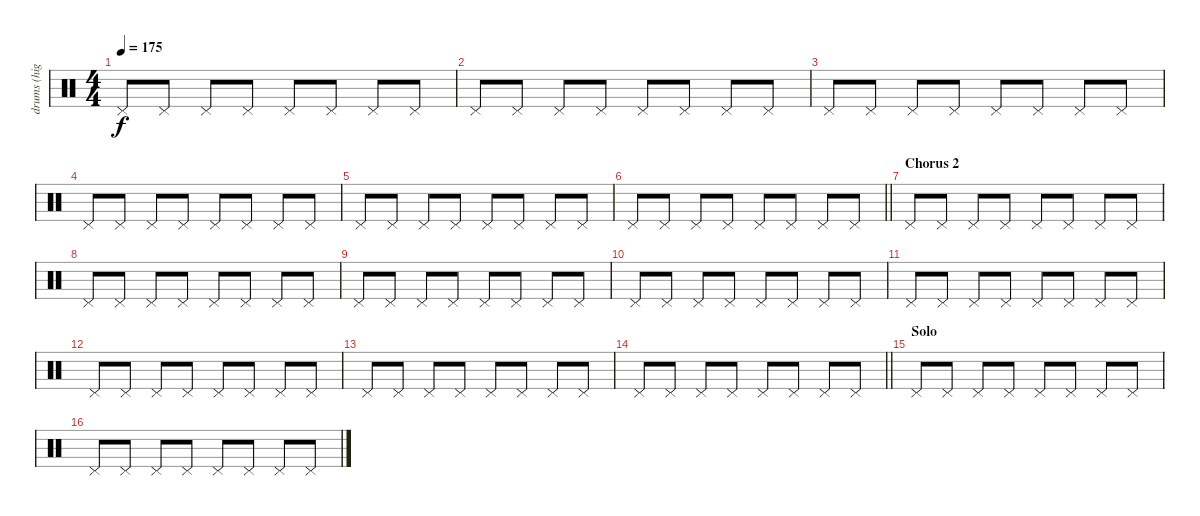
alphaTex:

\track ("drums (highhat)" "drums (hig") {instrument percussion}
\staff {score}
\articulation defaults
\ts (4 4)
\tempo 175
\clef neutral
\ks c "Pedal Hi-Hat (hit)".8{dy f} "Pedal Hi-Hat (hit)".8 "Pedal Hi-Hat (hit)".8 "Pedal Hi-Hat (hit)".8 "Pedal Hi-Hat (hit)".8 "Pedal Hi-Hat (hit)".8 "Pedal Hi-Hat (hit)".8 "Pedal Hi-Hat (hit)".8
|
"Pedal Hi-Hat (hit)".8 "Pedal Hi-Hat (hit)".8 "Pedal Hi-Hat (hit)".8 "Pedal Hi-Hat (hit)".8 "Pedal Hi-Hat (hit)".8 "Pedal Hi-Hat (hit)".8 "Pedal Hi-Hat (hit)".8 "Pedal Hi-Hat (hit)".8 |
"Pedal Hi-Hat (hit)".8 "Pedal Hi-Hat (hit)".8 "Pedal Hi-Hat (hit)".8 "Pedal Hi-Hat (hit)".8 "Pedal Hi-Hat (hit)".8 "Pedal Hi-Hat (hit)".8 "Pedal Hi-Hat (hit)".8 "Pedal Hi-Hat (hit)".8 |
"Pedal Hi-Hat (hit)".8 "Pedal Hi-Hat (hit)".8 "Pedal Hi-Hat (hit)".8 "Pedal Hi-Hat (hit)".8 "Pedal Hi-Hat (hit)".8 "Pedal Hi-Hat (hit)".8 "Pedal Hi-Hat (hit)".8 "Pedal Hi-Hat (hit)".8 |
"Pedal Hi-Hat (hit)".8 "Pedal Hi-Hat (hit)".8 "Pedal Hi-Hat (hit)".8 "Pedal Hi-Hat (hit)".8 "Pedal Hi-Hat (hit)".8 "Pedal Hi-Hat (hit)".8 "Pedal Hi-Hat (hit)".8 "Pedal Hi-Hat (hit)".8 |
\barLineRight lightlight "Pedal Hi-Hat (hit)".8 "Pedal Hi-Hat (hit)".8 "Pedal Hi-Hat (hit)".8 "Pedal Hi-Hat (hit)".8 "Pedal Hi-Hat (hit)".8 "Pedal Hi-Hat (hit)".8 "Pedal Hi-Hat (hit)".8 "Pedal Hi-Hat (hit)".8
|
\section ("" "Chorus 2")
"Pedal Hi-Hat (hit)".8 "Pedal Hi-Hat (hit)".8 "Pedal Hi-Hat (hit)".8 "Pedal Hi-Hat (hit)".8 "Pedal Hi-Hat (hit)".8 "Pedal Hi-Hat (hit)".8 "Pedal Hi-Hat (hit)".8 "Pedal Hi-Hat (hit)".8 |
"Pedal Hi-Hat (hit)".8 "Pedal Hi-Hat (hit)".8 "Pedal Hi-Hat (hit)".8 "Pedal Hi-Hat (hit)".8 "Pedal Hi-Hat (hit)".8 "Pedal Hi-Hat (hit)".8 "Pedal Hi-Hat (hit)".8 "Pedal Hi-Hat (hit)".8 |
"Pedal Hi-Hat (hit)".8 "Pedal Hi-Hat (hit)".8 "Pedal Hi-Hat (hit)".8 "Pedal Hi-Hat (hit)".8 "Pedal Hi-Hat (hit)".8 "Pedal Hi-Hat (hit)".8 "Pedal Hi-Hat (hit)".8 "Pedal Hi-Hat (hit)".8 |
"Pedal Hi-Hat (hit)".8 "Pedal Hi-Hat (hit)".8 "Pedal Hi-Hat (hit)".8 "Pedal Hi-Hat (hit)".8 "Pedal Hi-Hat (hit)".8 "Pedal Hi-Hat (hit)".8 "Pedal Hi-Hat (hit)".8 "Pedal Hi-Hat (hit)".8 |
"Pedal Hi-Hat (hit)".8 "Pedal Hi-Hat (hit)".8 "Pedal Hi-Hat (hit)".8 "Pedal Hi-Hat (hit)".8 "Pedal Hi-Hat (hit)".8 "Pedal Hi-Hat (hit)".8 "Pedal Hi-Hat (hit)".8 "Pedal Hi-Hat (hit)".8 |
"Pedal Hi-Hat (hit)".8 "Pedal Hi-Hat (hit)".8 "Pedal Hi-Hat (hit)".8 "Pedal Hi-Hat (hit)".8 "Pedal Hi-Hat (hit)".8 "Pedal Hi-Hat (hit)".8 "Pedal Hi-Hat (hit)".8 "Pedal Hi-Hat (hit)".8 |
"Pedal Hi-Hat (hit)".8 "Pedal Hi-Hat (hit)".8 "Pedal Hi-Hat (hit)".8 "Pedal Hi-Hat (hit)".8 "Pedal Hi-Hat (hit)".8 "Pedal Hi-Hat (hit)".8 "Pedal Hi-Hat (hit)".8 "Pedal Hi-Hat (hit)".8 |
\barLineRight lightlight "Pedal Hi-Hat (hit)".8 "Pedal Hi-Hat (hit)".8 "Pedal Hi-Hat (hit)".8 "Pedal Hi-Hat (hit)".8 "Pedal Hi-Hat (hit)".8 "Pedal Hi-Hat (hit)".8 "Pedal Hi-Hat (hit)".8 "Pedal Hi-Hat (hit)".8
|
\section ("" "Solo")
"Pedal Hi-Hat (hit)".8 "Pedal Hi-Hat (hit)".8 "Pedal Hi-Hat (hit)".8 "Pedal Hi-Hat (hit)".8 "Pedal Hi-Hat (hit)".8 "Pedal Hi-Hat (hit)".8 "Pedal Hi-Hat (hit)".8 "Pedal Hi-Hat (hit)".8 |
"Pedal Hi-Hat (hit)".8 "Pedal Hi-Hat (hit)".8 "Pedal Hi-Hat (hit)".8 "Pedal Hi-Hat (hit)".8 "Pedal Hi-Hat (hit)".8 "Pedal Hi-Hat (hit)".8 "Pedal Hi-Hat (hit)".8 "Pedal Hi-Hat (hit)".8
